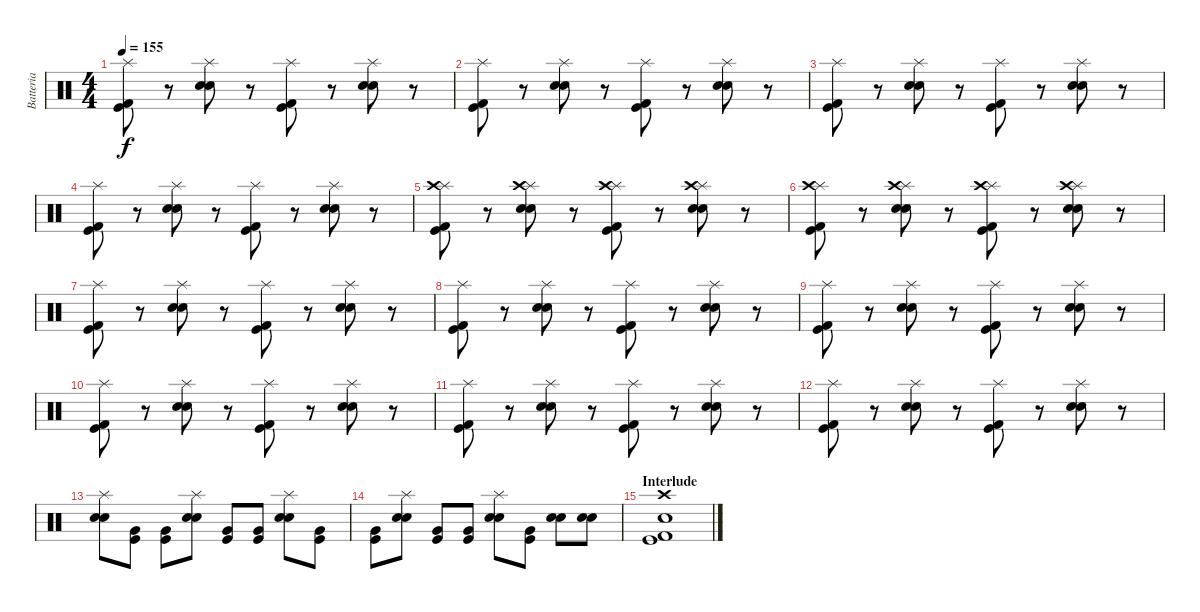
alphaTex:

\track ("Batteria" "Batteria") {instrument percussion}
\staff {score}
\articulation defaults
\ts (4 4)
\tempo 155
\clef neutral
\ks c
("Kick (hit)" "Kick (hit) 2" "Splash (hit)").8{dy f} r.8 ("Electric Snare (hit)" "Snare (hit) 2" "Splash (hit)").8 r.8 ("Kick (hit)" "Kick (hit) 2" "Splash (hit)").8 r.8 ("Electric Snare (hit)" "Snare (hit) 2" "Splash (hit)").8 r.8 |
("Kick (hit)" "Kick (hit) 2" "Splash (hit)").8 r.8 ("Electric Snare (hit)" "Snare (hit) 2" "Splash (hit)").8 r.8 ("Kick (hit)" "Kick (hit) 2" "Splash (hit)").8 r.8 ("Electric Snare (hit)" "Snare (hit) 2" "Splash (hit)").8 r.8 |
("Kick (hit)" "Kick (hit) 2" "Splash (hit)").8 r.8 ("Electric Snare (hit)" "Snare (hit) 2" "Splash (hit)").8 r.8 ("Kick (hit)" "Kick (hit) 2" "Splash (hit)").8 r.8 ("Electric Snare (hit)" "Snare (hit) 2" "Splash (hit)").8 r.8 |
("Kick (hit)" "Kick (hit) 2" "Splash (hit)").8 r.8 ("Electric Snare (hit)" "Snare (hit) 2" "Splash (hit)").8 r.8 ("Kick (hit)" "Kick (hit) 2" "Splash (hit)").8 r.8 ("Electric Snare (hit)" "Snare (hit) 2" "Splash (hit)").8 r.8 |
("Kick (hit)" "Kick (hit) 2" "Splash (hit)" "Crash high (hit)").8 r.8 ("Electric Snare (hit)" "Snare (hit) 2" "Splash (hit)" "Crash high (hit)").8 r.8 ("Kick (hit)" "Kick (hit) 2" "Splash (hit)" "Crash high (hit)").8 r.8 ("Electric Snare (hit)" "Snare (hit) 2" "Splash (hit)" "Crash high (hit)").8 r.8 |
("Kick (hit)" "Kick (hit) 2" "Splash (hit)" "Crash high (hit)").8 r.8 ("Electric Snare (hit)" "Snare (hit) 2" "Splash (hit)" "Crash high (hit)").8 r.8 ("Kick (hit)" "Kick (hit) 2" "Splash (hit)" "Crash high (hit)").8 r.8 ("Electric Snare (hit)" "Snare (hit) 2" "Splash (hit)" "Crash high (hit)").8 r.8 |
("Kick (hit)" "Kick (hit) 2" "Splash (hit)").8 r.8 ("Electric Snare (hit)" "Snare (hit) 2" "Splash (hit)").8 r.8 ("Kick (hit)" "Kick (hit) 2" "Splash (hit)").8 r.8 ("Electric Snare (hit)" "Snare (hit) 2" "Splash (hit)").8 r.8 |
("Kick (hit)" "Kick (hit) 2" "Splash (hit)").8 r.8 ("Electric Snare (hit)" "Snare (hit) 2" "Splash (hit)").8 r.8 ("Kick (hit)" "Kick (hit) 2" "Splash (hit)").8 r.8 ("Electric Snare (hit)" "Snare (hit) 2" "Splash (hit)").8 r.8 |
("Kick (hit)" "Kick (hit) 2" "Splash (hit)").8 r.8 ("Electric Snare (hit)" "Snare (hit) 2" "Splash (hit)").8 r.8 ("Kick (hit)" "Kick (hit) 2" "Splash (hit)").8 r.8 ("Electric Snare (hit)" "Snare (hit) 2" "Splash (hit)").8 r.8 |
("Kick (hit)" "Kick (hit) 2" "Splash (hit)").8 r.8 ("Electric Snare (hit)" "Snare (hit) 2" "Splash (hit)").8 r.8 ("Kick (hit)" "Kick (hit) 2" "Splash (hit)").8 r.8 ("Electric Snare (hit)" "Snare (hit) 2" "Splash (hit)").8 r.8 |
("Kick (hit)" "Kick (hit) 2" "Splash (hit)").8 r.8 ("Electric Snare (hit)" "Snare (hit) 2" "Splash (hit)").8 r.8 ("Kick (hit)" "Kick (hit) 2" "Splash (hit)").8 r.8 ("Electric Snare (hit)" "Snare (hit) 2" "Splash (hit)").8 r.8 |
("Kick (hit)" "Kick (hit) 2" "Splash (hit)").8 r.8 ("Electric Snare (hit)" "Snare (hit) 2" "Splash (hit)").8 r.8 ("Kick (hit)" "Kick (hit) 2" "Splash (hit)").8 r.8 ("Electric Snare (hit)" "Snare (hit) 2" "Splash (hit)").8 r.8 |
("Electric Snare (hit)" "Snare (hit) 2" "Splash (hit)").8 ("Kick (hit)" "Very Low Tom (hit)").8 ("Kick (hit)" "Very Low Tom (hit)").8 ("Electric Snare (hit)" "Snare (hit) 2" "Splash (hit)").8 ("Kick (hit)" "Very Low Tom (hit)").8 ("Kick (hit)" "Very Low Tom (hit)").8 ("Electric Snare (hit)" "Snare (hit) 2" "Splash (hit)").8 ("Kick (hit)" "Very Low Tom (hit)").8 |
("Kick (hit)" "Very Low Tom (hit)").8 ("Electric Snare (hit)" "Snare (hit) 2" "Splash (hit)").8 ("Kick (hit)" "Very Low Tom (hit)").8 ("Kick (hit)" "Very Low Tom (hit)").8 ("Electric Snare (hit)" "Snare (hit) 2" "Splash (hit)").8 ("Kick (hit)" "Very Low Tom (hit)").8 ("Electric Snare (hit)" "Snare (hit) 2").8 ("Electric Snare (hit)" "Snare (hit) 2").8 |
\section ("" "Interlude")
("Kick (hit)" "Kick (hit) 2" "Snare (hit) 2" "Crash high (hit)").1
